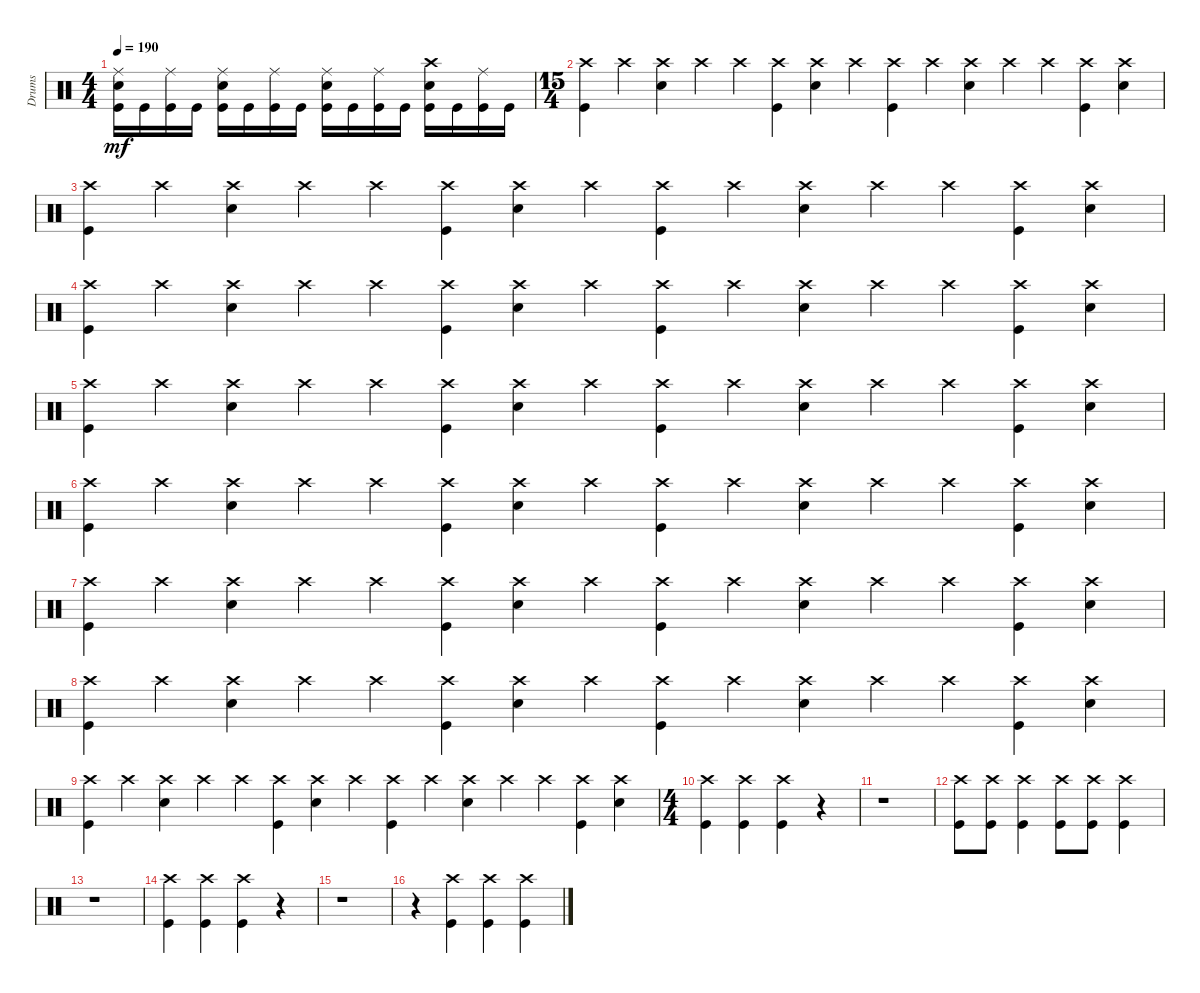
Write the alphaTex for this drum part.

\track ("Drums" "Drums") {instrument percussion}
\staff {score}
\articulation defaults
\ts (4 4)
\tempo 190
\clef neutral
\ks c
("Snare (hit) 2" "Ride (middle)" "Kick (hit)").16{dy mf} "Kick (hit)".16 ("Ride (middle)" "Kick (hit)").16 "Kick (hit)".16 ("Snare (hit) 2" "Ride (middle)" "Kick (hit)").16 "Kick (hit)".16 ("Ride (middle)" "Kick (hit)").16 "Kick (hit)".16 ("Snare (hit) 2" "Ride (middle)" "Kick (hit)").16 "Kick (hit)".16 ("Ride (middle)" "Kick (hit)").16 "Kick (hit)".16 ("Snare (hit) 2" "Crash high (hit)" "Kick (hit)").16 "Kick (hit)".16 ("Ride (middle)" "Kick (hit)").16 "Kick (hit)".16 |
\ts (15 4)
("Kick (hit)" "Crash high (hit)").4 "Crash high (hit)".4 ("Snare (hit) 2" "Crash high (hit)").4 "Crash high (hit)".4 "Crash high (hit)".4 ("Kick (hit)" "Crash high (hit)").4 ("Snare (hit) 2" "Crash high (hit)").4 "Crash high (hit)".4 ("Kick (hit)" "Crash high (hit)").4 "Crash high (hit)".4 ("Snare (hit) 2" "Crash high (hit)").4 "Crash high (hit)".4 "Crash high (hit)".4 ("Kick (hit)" "Crash high (hit)").4 ("Snare (hit) 2" "Crash high (hit)").4 |
("Crash high (hit)" "Kick (hit)").4 "Crash high (hit)".4 ("Snare (hit) 2" "Crash high (hit)").4 "Crash high (hit)".4 "Crash high (hit)".4 ("Crash high (hit)" "Kick (hit)").4 ("Snare (hit) 2" "Crash high (hit)").4 "Crash high (hit)".4 ("Crash high (hit)" "Kick (hit)").4 "Crash high (hit)".4 ("Snare (hit) 2" "Crash high (hit)").4 "Crash high (hit)".4 "Crash high (hit)".4 ("Crash high (hit)" "Kick (hit)").4 ("Snare (hit) 2" "Crash high (hit)").4 |
("Crash high (hit)" "Kick (hit)").4 "Crash high (hit)".4 ("Snare (hit) 2" "Crash high (hit)").4 "Crash high (hit)".4 "Crash high (hit)".4 ("Crash high (hit)" "Kick (hit)").4 ("Snare (hit) 2" "Crash high (hit)").4 "Crash high (hit)".4 ("Crash high (hit)" "Kick (hit)").4 "Crash high (hit)".4 ("Snare (hit) 2" "Crash high (hit)").4 "Crash high (hit)".4 "Crash high (hit)".4 ("Crash high (hit)" "Kick (hit)").4 ("Snare (hit) 2" "Crash high (hit)").4 |
("Kick (hit)" "Crash high (hit)").4 "Crash high (hit)".4 ("Snare (hit) 2" "Crash high (hit)").4 "Crash high (hit)".4 "Crash high (hit)".4 ("Kick (hit)" "Crash high (hit)").4 ("Snare (hit) 2" "Crash high (hit)").4 "Crash high (hit)".4 ("Kick (hit)" "Crash high (hit)").4 "Crash high (hit)".4 ("Snare (hit) 2" "Crash high (hit)").4 "Crash high (hit)".4 "Crash high (hit)".4 ("Kick (hit)" "Crash high (hit)").4 ("Snare (hit) 2" "Crash high (hit)").4 |
("Kick (hit)" "Crash high (hit)").4 "Crash high (hit)".4 ("Snare (hit) 2" "Crash high (hit)").4 "Crash high (hit)".4 "Crash high (hit)".4 ("Kick (hit)" "Crash high (hit)").4 ("Snare (hit) 2" "Crash high (hit)").4 "Crash high (hit)".4 ("Kick (hit)" "Crash high (hit)").4 "Crash high (hit)".4 ("Snare (hit) 2" "Crash high (hit)").4 "Crash high (hit)".4 "Crash high (hit)".4 ("Kick (hit)" "Crash high (hit)").4 ("Snare (hit) 2" "Crash high (hit)").4 |
("Crash high (hit)" "Kick (hit)").4 "Crash high (hit)".4 ("Snare (hit) 2" "Crash high (hit)").4 "Crash high (hit)".4 "Crash high (hit)".4 ("Crash high (hit)" "Kick (hit)").4 ("Snare (hit) 2" "Crash high (hit)").4 "Crash high (hit)".4 ("Crash high (hit)" "Kick (hit)").4 "Crash high (hit)".4 ("Snare (hit) 2" "Crash high (hit)").4 "Crash high (hit)".4 "Crash high (hit)".4 ("Crash high (hit)" "Kick (hit)").4 ("Snare (hit) 2" "Crash high (hit)").4 |
("Crash high (hit)" "Kick (hit)").4 "Crash high (hit)".4 ("Snare (hit) 2" "Crash high (hit)").4 "Crash high (hit)".4 "Crash high (hit)".4 ("Crash high (hit)" "Kick (hit)").4 ("Snare (hit) 2" "Crash high (hit)").4 "Crash high (hit)".4 ("Crash high (hit)" "Kick (hit)").4 "Crash high (hit)".4 ("Snare (hit) 2" "Crash high (hit)").4 "Crash high (hit)".4 "Crash high (hit)".4 ("Crash high (hit)" "Kick (hit)").4 ("Snare (hit) 2" "Crash high (hit)").4 |
("Kick (hit)" "Crash high (hit)").4 "Crash high (hit)".4 ("Snare (hit) 2" "Crash high (hit)").4 "Crash high (hit)".4 "Crash high (hit)".4 ("Kick (hit)" "Crash high (hit)").4 ("Snare (hit) 2" "Crash high (hit)").4 "Crash high (hit)".4 ("Kick (hit)" "Crash high (hit)").4 "Crash high (hit)".4 ("Snare (hit) 2" "Crash high (hit)").4 "Crash high (hit)".4 "Crash high (hit)".4 ("Kick (hit)" "Crash high (hit)").4 ("Snare (hit) 2" "Crash high (hit)").4 |
\ts (4 4)
("Kick (hit)" "Crash high (hit)").4 ("Kick (hit)" "Crash high (hit)").4 ("Kick (hit)" "Crash high (hit)").4 r.4 |
r.1 |
("Crash high (hit)" "Kick (hit)").8 ("Kick (hit)" "Crash high (hit)").8 ("Kick (hit)" "Crash high (hit)").4 ("Kick (hit)" "Crash high (hit)").8 ("Crash high (hit)" "Kick (hit)").8 ("Crash high (hit)" "Kick (hit)").4 |
r.1 |
("Crash high (hit)" "Kick (hit)").4 ("Crash high (hit)" "Kick (hit)").4 ("Crash high (hit)" "Kick (hit)").4 r.4 |
r.1 |
r.4 ("Crash high (hit)" "Kick (hit)").4 ("Crash high (hit)" "Kick (hit)").4 ("Crash high (hit)" "Kick (hit)").4
